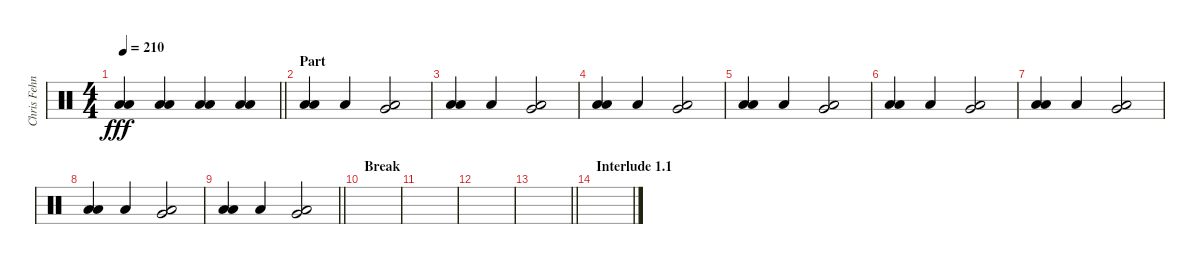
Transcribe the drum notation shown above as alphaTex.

\track ("Chris Fehn" "Chris Fehn") {instrument percussion}
\staff {score}
\articulation defaults
\ts (4 4)
\tempo 210
\clef neutral
\barLineRight lightlight
\ks c
("Low Floor Tom (hit)" "Low Floor Tom (hit)").4{dy fff} ("Low Floor Tom (hit)" "Low Floor Tom (hit)").4 ("Low Floor Tom (hit)" "Low Floor Tom (hit)").4 ("Low Floor Tom (hit)" "Low Floor Tom (hit)").4 |
\section ("" "Part")
("Low Floor Tom (hit)" "Low Floor Tom (hit)").4 "Low Floor Tom (hit)".4 ("Very Low Tom (hit)" "Low Floor Tom (hit)").2 |
("Low Floor Tom (hit)" "Low Floor Tom (hit)").4 "Low Floor Tom (hit)".4 ("Very Low Tom (hit)" "Low Floor Tom (hit)").2 |
("Low Floor Tom (hit)" "Low Floor Tom (hit)").4 "Low Floor Tom (hit)".4 ("Very Low Tom (hit)" "Low Floor Tom (hit)").2 |
("Low Floor Tom (hit)" "Low Floor Tom (hit)").4 "Low Floor Tom (hit)".4 ("Very Low Tom (hit)" "Low Floor Tom (hit)").2 |
("Low Floor Tom (hit)" "Low Floor Tom (hit)").4 "Low Floor Tom (hit)".4 ("Very Low Tom (hit)" "Low Floor Tom (hit)").2 |
("Low Floor Tom (hit)" "Low Floor Tom (hit)").4 "Low Floor Tom (hit)".4 ("Very Low Tom (hit)" "Low Floor Tom (hit)").2 |
("Low Floor Tom (hit)" "Low Floor Tom (hit)").4 "Low Floor Tom (hit)".4 ("Very Low Tom (hit)" "Low Floor Tom (hit)").2 |
\barLineRight lightlight
("Low Floor Tom (hit)" "Low Floor Tom (hit)").4 "Low Floor Tom (hit)".4 ("Very Low Tom (hit)" "Low Floor Tom (hit)").2 |
\section ("" "Break")
|
|
|
\barLineRight lightlight
|
\section ("" "Interlude 1.1")
